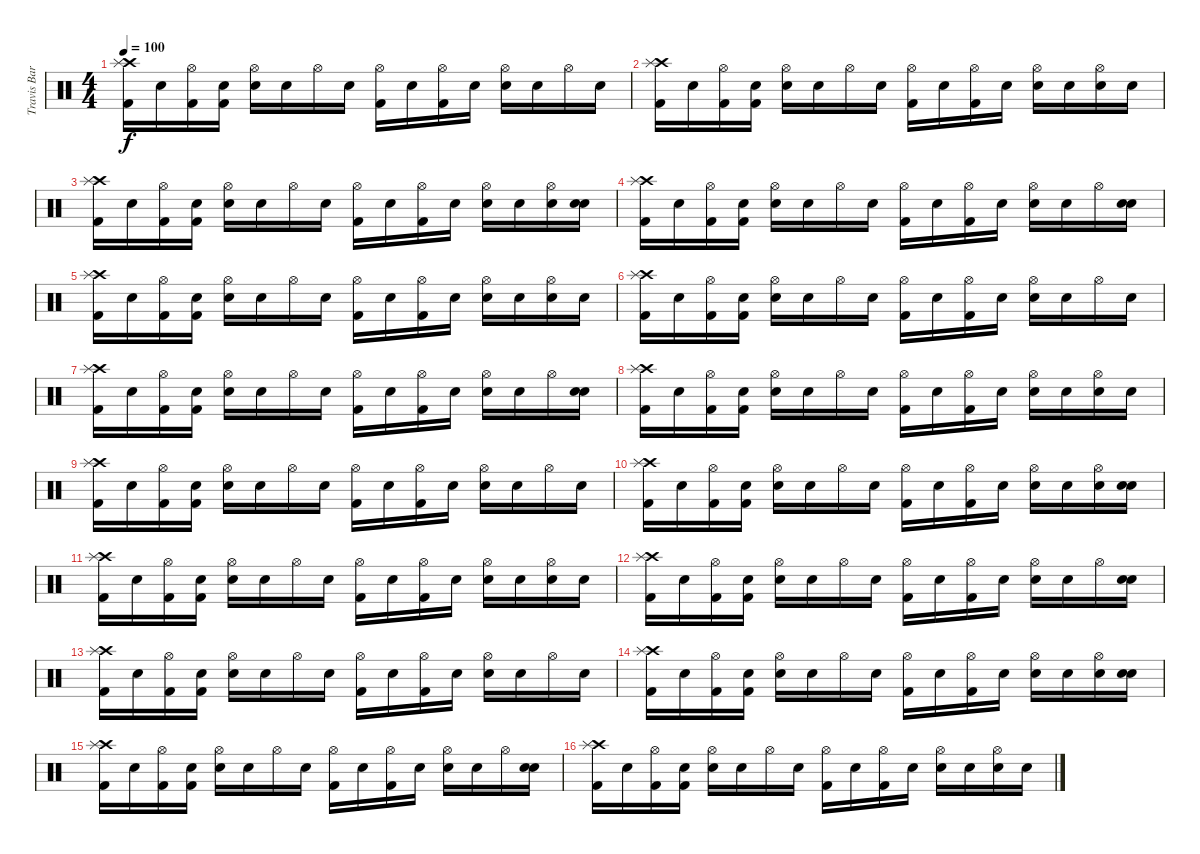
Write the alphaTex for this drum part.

\track ("Travis Barker - Batterie" "Travis Bar") {instrument percussion}
\staff {score}
\articulation defaults
\ts (4 4)
\tempo 100
\clef neutral
\ks c
("Crash high (hit)" "Splash (hit)" "Kick (hit) 2").16{dy f} "Snare (hit)"{x}.16 ("Hi-Hat (open)" "Kick (hit) 2").16 ("Snare (hit)"{x} "Kick (hit) 2").16 ("Hi-Hat (open)" "Electric Snare (hit)").16 "Snare (hit)"{x}.16 "Hi-Hat (open)".16 "Snare (hit)"{x}.16 ("Hi-Hat (open)" "Kick (hit) 2").16 "Snare (hit)"{x}.16 ("Hi-Hat (open)" "Kick (hit) 2").16 "Snare (hit)"{x}.16 ("Hi-Hat (open)" "Electric Snare (hit)").16 "Snare (hit)"{x}.16 "Hi-Hat (open)".16 "Snare (hit)"{x}.16 |
("Crash high (hit)" "Splash (hit)" "Kick (hit) 2").16 "Snare (hit)"{x}.16 ("Hi-Hat (open)" "Kick (hit) 2").16 ("Snare (hit)"{x} "Kick (hit) 2").16 ("Hi-Hat (open)" "Electric Snare (hit)").16 "Snare (hit)"{x}.16 "Hi-Hat (open)".16 "Snare (hit)"{x}.16 ("Hi-Hat (open)" "Kick (hit) 2").16 "Snare (hit)"{x}.16 ("Hi-Hat (open)" "Kick (hit) 2").16 "Snare (hit)"{x}.16 ("Hi-Hat (open)" "Electric Snare (hit)").16 "Snare (hit)"{x}.16 ("Hi-Hat (open)" "Electric Snare (hit)").16 "Snare (hit)"{x}.16 |
("Crash high (hit)" "Splash (hit)" "Kick (hit) 2").16 "Snare (hit)"{x}.16 ("Hi-Hat (open)" "Kick (hit) 2").16 ("Snare (hit)"{x} "Kick (hit) 2").16 ("Hi-Hat (open)" "Electric Snare (hit)").16 "Snare (hit)"{x}.16 "Hi-Hat (open)".16 "Snare (hit)"{x}.16 ("Hi-Hat (open)" "Kick (hit) 2").16 "Snare (hit)"{x}.16 ("Hi-Hat (open)" "Kick (hit) 2").16 "Snare (hit)"{x}.16 ("Hi-Hat (open)" "Electric Snare (hit)").16 "Snare (hit)"{x}.16 ("Hi-Hat (open)" "Electric Snare (hit)").16 ("Snare (hit)"{x} "Electric Snare (hit)").16 |
("Crash high (hit)" "Splash (hit)" "Kick (hit) 2").16 "Snare (hit)"{x}.16 ("Hi-Hat (open)" "Kick (hit) 2").16 ("Snare (hit)"{x} "Kick (hit) 2").16 ("Hi-Hat (open)" "Electric Snare (hit)").16 "Snare (hit)"{x}.16 "Hi-Hat (open)".16 "Snare (hit)"{x}.16 ("Hi-Hat (open)" "Kick (hit) 2").16 "Snare (hit)"{x}.16 ("Hi-Hat (open)" "Kick (hit) 2").16 "Snare (hit)"{x}.16 ("Hi-Hat (open)" "Electric Snare (hit)").16 "Snare (hit)"{x}.16 "Hi-Hat (open)".16 ("Snare (hit)"{x} "Electric Snare (hit)").16 |
("Crash high (hit)" "Splash (hit)" "Kick (hit) 2").16 "Snare (hit)"{x}.16 ("Hi-Hat (open)" "Kick (hit) 2").16 ("Snare (hit)"{x} "Kick (hit) 2").16 ("Hi-Hat (open)" "Electric Snare (hit)").16 "Snare (hit)"{x}.16 "Hi-Hat (open)".16 "Snare (hit)"{x}.16 ("Hi-Hat (open)" "Kick (hit) 2").16 "Snare (hit)"{x}.16 ("Hi-Hat (open)" "Kick (hit) 2").16 "Snare (hit)"{x}.16 ("Hi-Hat (open)" "Electric Snare (hit)").16 "Snare (hit)"{x}.16 ("Hi-Hat (open)" "Electric Snare (hit)").16 "Snare (hit)"{x}.16 |
("Crash high (hit)" "Splash (hit)" "Kick (hit) 2").16 "Snare (hit)"{x}.16 ("Hi-Hat (open)" "Kick (hit) 2").16 ("Snare (hit)"{x} "Kick (hit) 2").16 ("Hi-Hat (open)" "Electric Snare (hit)").16 "Snare (hit)"{x}.16 "Hi-Hat (open)".16 "Snare (hit)"{x}.16 ("Hi-Hat (open)" "Kick (hit) 2").16 "Snare (hit)"{x}.16 ("Hi-Hat (open)" "Kick (hit) 2").16 "Snare (hit)"{x}.16 ("Hi-Hat (open)" "Electric Snare (hit)").16 "Snare (hit)"{x}.16 "Hi-Hat (open)".16 "Snare (hit)"{x}.16 |
("Crash high (hit)" "Splash (hit)" "Kick (hit) 2").16 "Snare (hit)"{x}.16 ("Hi-Hat (open)" "Kick (hit) 2").16 ("Snare (hit)"{x} "Kick (hit) 2").16 ("Hi-Hat (open)" "Electric Snare (hit)").16 "Snare (hit)"{x}.16 "Hi-Hat (open)".16 "Snare (hit)"{x}.16 ("Hi-Hat (open)" "Kick (hit) 2").16 "Snare (hit)"{x}.16 ("Hi-Hat (open)" "Kick (hit) 2").16 "Snare (hit)"{x}.16 ("Hi-Hat (open)" "Electric Snare (hit)").16 "Snare (hit)"{x}.16 "Hi-Hat (open)".16 ("Snare (hit)"{x} "Electric Snare (hit)").16 |
("Crash high (hit)" "Splash (hit)" "Kick (hit) 2").16 "Snare (hit)"{x}.16 ("Hi-Hat (open)" "Kick (hit) 2").16 ("Snare (hit)"{x} "Kick (hit) 2").16 ("Hi-Hat (open)" "Electric Snare (hit)").16 "Snare (hit)"{x}.16 "Hi-Hat (open)".16 "Snare (hit)"{x}.16 ("Hi-Hat (open)" "Kick (hit) 2").16 "Snare (hit)"{x}.16 ("Hi-Hat (open)" "Kick (hit) 2").16 "Snare (hit)"{x}.16 ("Hi-Hat (open)" "Electric Snare (hit)").16 "Snare (hit)"{x}.16 ("Hi-Hat (open)" "Electric Snare (hit)").16 "Snare (hit)"{x}.16 |
("Crash high (hit)" "Splash (hit)" "Kick (hit) 2").16 "Snare (hit)"{x}.16 ("Hi-Hat (open)" "Kick (hit) 2").16 ("Snare (hit)"{x} "Kick (hit) 2").16 ("Hi-Hat (open)" "Electric Snare (hit)").16 "Snare (hit)"{x}.16 "Hi-Hat (open)".16 "Snare (hit)"{x}.16 ("Hi-Hat (open)" "Kick (hit) 2").16 "Snare (hit)"{x}.16 ("Hi-Hat (open)" "Kick (hit) 2").16 "Snare (hit)"{x}.16 ("Hi-Hat (open)" "Electric Snare (hit)").16 "Snare (hit)"{x}.16 "Hi-Hat (open)".16 "Snare (hit)"{x}.16 |
("Crash high (hit)" "Splash (hit)" "Kick (hit) 2").16 "Snare (hit)"{x}.16 ("Hi-Hat (open)" "Kick (hit) 2").16 ("Snare (hit)"{x} "Kick (hit) 2").16 ("Hi-Hat (open)" "Electric Snare (hit)").16 "Snare (hit)"{x}.16 "Hi-Hat (open)".16 "Snare (hit)"{x}.16 ("Hi-Hat (open)" "Kick (hit) 2").16 "Snare (hit)"{x}.16 ("Hi-Hat (open)" "Kick (hit) 2").16 "Snare (hit)"{x}.16 ("Hi-Hat (open)" "Electric Snare (hit)").16 "Snare (hit)"{x}.16 ("Hi-Hat (open)" "Electric Snare (hit)").16 ("Snare (hit)"{x} "Electric Snare (hit)").16 |
("Crash high (hit)" "Splash (hit)" "Kick (hit) 2").16 "Snare (hit)"{x}.16 ("Hi-Hat (open)" "Kick (hit) 2").16 ("Snare (hit)"{x} "Kick (hit) 2").16 ("Hi-Hat (open)" "Electric Snare (hit)").16 "Snare (hit)"{x}.16 "Hi-Hat (open)".16 "Snare (hit)"{x}.16 ("Hi-Hat (open)" "Kick (hit) 2").16 "Snare (hit)"{x}.16 ("Hi-Hat (open)" "Kick (hit) 2").16 "Snare (hit)"{x}.16 ("Hi-Hat (open)" "Electric Snare (hit)").16 "Snare (hit)"{x}.16 ("Hi-Hat (open)" "Electric Snare (hit)").16 "Snare (hit)"{x}.16 |
("Crash high (hit)" "Splash (hit)" "Kick (hit) 2").16 "Snare (hit)"{x}.16 ("Hi-Hat (open)" "Kick (hit) 2").16 ("Snare (hit)"{x} "Kick (hit) 2").16 ("Hi-Hat (open)" "Electric Snare (hit)").16 "Snare (hit)"{x}.16 "Hi-Hat (open)".16 "Snare (hit)"{x}.16 ("Hi-Hat (open)" "Kick (hit) 2").16 "Snare (hit)"{x}.16 ("Hi-Hat (open)" "Kick (hit) 2").16 "Snare (hit)"{x}.16 ("Hi-Hat (open)" "Electric Snare (hit)").16 "Snare (hit)"{x}.16 "Hi-Hat (open)".16 ("Snare (hit)"{x} "Electric Snare (hit)").16 |
("Crash high (hit)" "Splash (hit)" "Kick (hit) 2").16 "Snare (hit)"{x}.16 ("Hi-Hat (open)" "Kick (hit) 2").16 ("Snare (hit)"{x} "Kick (hit) 2").16 ("Hi-Hat (open)" "Electric Snare (hit)").16 "Snare (hit)"{x}.16 "Hi-Hat (open)".16 "Snare (hit)"{x}.16 ("Hi-Hat (open)" "Kick (hit) 2").16 "Snare (hit)"{x}.16 ("Hi-Hat (open)" "Kick (hit) 2").16 "Snare (hit)"{x}.16 ("Hi-Hat (open)" "Electric Snare (hit)").16 "Snare (hit)"{x}.16 "Hi-Hat (open)".16 "Snare (hit)"{x}.16 |
("Crash high (hit)" "Splash (hit)" "Kick (hit) 2").16 "Snare (hit)"{x}.16 ("Hi-Hat (open)" "Kick (hit) 2").16 ("Snare (hit)"{x} "Kick (hit) 2").16 ("Hi-Hat (open)" "Electric Snare (hit)").16 "Snare (hit)"{x}.16 "Hi-Hat (open)".16 "Snare (hit)"{x}.16 ("Hi-Hat (open)" "Kick (hit) 2").16 "Snare (hit)"{x}.16 ("Hi-Hat (open)" "Kick (hit) 2").16 "Snare (hit)"{x}.16 ("Hi-Hat (open)" "Electric Snare (hit)").16 "Snare (hit)"{x}.16 ("Hi-Hat (open)" "Electric Snare (hit)").16 ("Snare (hit)"{x} "Electric Snare (hit)").16 |
("Crash high (hit)" "Splash (hit)" "Kick (hit) 2").16 "Snare (hit)"{x}.16 ("Hi-Hat (open)" "Kick (hit) 2").16 ("Snare (hit)"{x} "Kick (hit) 2").16 ("Hi-Hat (open)" "Electric Snare (hit)").16 "Snare (hit)"{x}.16 "Hi-Hat (open)".16 "Snare (hit)"{x}.16 ("Hi-Hat (open)" "Kick (hit) 2").16 "Snare (hit)"{x}.16 ("Hi-Hat (open)" "Kick (hit) 2").16 "Snare (hit)"{x}.16 ("Hi-Hat (open)" "Electric Snare (hit)").16 "Snare (hit)"{x}.16 "Hi-Hat (open)".16 ("Snare (hit)"{x} "Electric Snare (hit)").16 |
("Crash high (hit)" "Splash (hit)" "Kick (hit) 2").16 "Snare (hit)"{x}.16 ("Hi-Hat (open)" "Kick (hit) 2").16 ("Snare (hit)"{x} "Kick (hit) 2").16 ("Hi-Hat (open)" "Electric Snare (hit)").16 "Snare (hit)"{x}.16 "Hi-Hat (open)".16 "Snare (hit)"{x}.16 ("Hi-Hat (open)" "Kick (hit) 2").16 "Snare (hit)"{x}.16 ("Hi-Hat (open)" "Kick (hit) 2").16 "Snare (hit)"{x}.16 ("Hi-Hat (open)" "Electric Snare (hit)").16 "Snare (hit)"{x}.16 ("Hi-Hat (open)" "Electric Snare (hit)").16 "Snare (hit)"{x}.16
